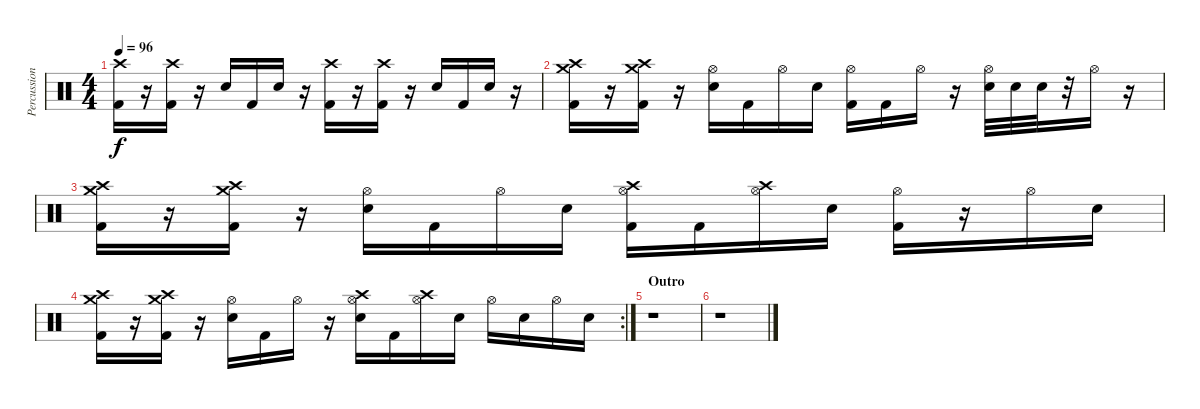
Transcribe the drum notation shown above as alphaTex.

\track ("Percussions" "Percussion") {instrument percussion}
\staff {score}
\articulation defaults
\ts (4 4)
\tempo 96
\clef neutral
\ks c
("Crash high (hit)" "Kick (hit) 2").16{dy f} r.16 ("Crash high (hit)" "Kick (hit) 2").16 r.16 "Snare (hit) 2".16 "Kick (hit) 2".16 "Snare (hit) 2".16 r.16 ("Crash high (hit)" "Kick (hit) 2").16 r.16 ("Crash high (hit)" "Kick (hit) 2").16 r.16 "Snare (hit) 2".16 "Kick (hit) 2".16 "Snare (hit) 2".16 r.16 |
("Crash high (hit)" "Crash medium (hit)" "Kick (hit) 2").16 r.16 ("Crash high (hit)" "Crash medium (hit)" "Kick (hit) 2").16 r.16 ("Hi-Hat (open)" "Snare (hit) 2").16 "Kick (hit) 2".16 "Hi-Hat (open)".16 "Snare (hit) 2".16 ("Hi-Hat (open)" "Kick (hit) 2").16 "Kick (hit) 2".16 "Hi-Hat (open)".16 r.16 ("Hi-Hat (open)" "Snare (hit) 2").32 "Snare (hit) 2".32 "Snare (hit) 2".32 r.32 "Hi-Hat (open)".16 r.16 |
("Crash high (hit)" "Crash medium (hit)" "Kick (hit) 2").16 r.16 ("Crash high (hit)" "Crash medium (hit)" "Kick (hit) 2").16 r.16 ("Hi-Hat (open)" "Snare (hit) 2").16 "Kick (hit) 2".16 "Hi-Hat (open)".16 "Snare (hit) 2".16 ("Crash high (hit)" "Hi-Hat (open)" "Kick (hit) 2").16 "Kick (hit) 2".16 ("Crash high (hit)" "Hi-Hat (open)").16 "Snare (hit) 2".16 ("Hi-Hat (open)" "Kick (hit) 2").16 r.16 "Hi-Hat (open)".16 "Snare (hit) 2".16 |
\rc 2
("Crash high (hit)" "Crash medium (hit)" "Kick (hit) 2").16 r.16 ("Crash high (hit)" "Crash medium (hit)" "Kick (hit) 2").16 r.16 ("Hi-Hat (open)" "Snare (hit) 2").16 "Kick (hit) 2".16 "Hi-Hat (open)".16 r.16 ("Crash high (hit)" "Hi-Hat (open)" "Snare (hit) 2").16 "Kick (hit) 2".16 ("Crash high (hit)" "Hi-Hat (open)").16 "Snare (hit) 2".16 "Hi-Hat (open)".16 "Snare (hit) 2".16 "Hi-Hat (open)".16 "Snare (hit) 2".16 |
\section ("" "Outro")
r.1 |
r.1
